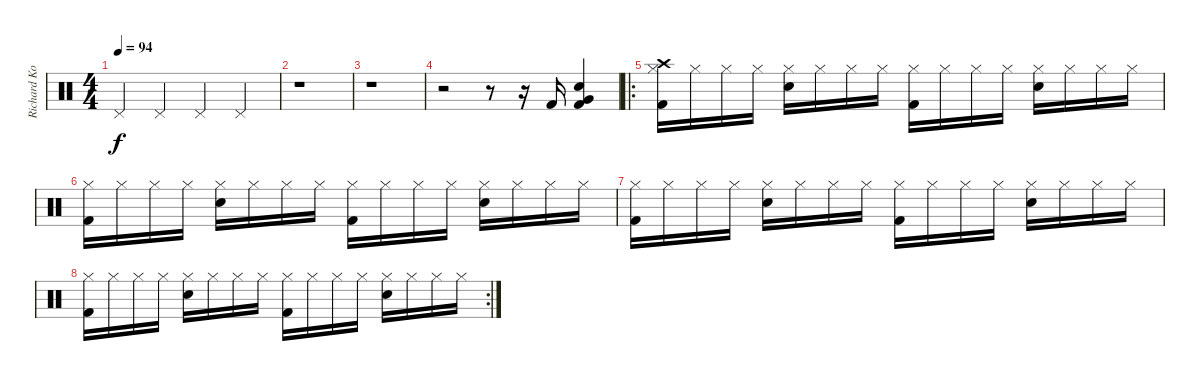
\track ("Richard Kolinka" "Richard Ko") {instrument percussion}
\staff {score}
\articulation defaults
\ts (4 4)
\tempo 94
\clef neutral
\ks c "Pedal Hi-Hat (hit)".4{dy f} "Pedal Hi-Hat (hit)".4 "Pedal Hi-Hat (hit)".4 "Pedal Hi-Hat (hit)".4
|
r.1 |
r.1 |
r.2 r.8 r.16 "Kick (hit) 2".16 ("Kick (hit) 2" "Electric Snare (hit)" "Very Low Tom (hit)").4 |
\ro
("Kick (hit) 2" "Hi-Hat (closed)" "Crash high (hit)").16 "Hi-Hat (closed)".16 "Hi-Hat (closed)".16 "Hi-Hat (closed)".16 ("Snare (hit) 2" "Hi-Hat (closed)").16 "Hi-Hat (closed)".16 "Hi-Hat (closed)".16 "Hi-Hat (closed)".16 ("Kick (hit) 2" "Hi-Hat (closed)").16 "Hi-Hat (closed)".16 "Hi-Hat (closed)".16 "Hi-Hat (closed)".16 ("Snare (hit) 2" "Hi-Hat (closed)").16 "Hi-Hat (closed)".16 "Hi-Hat (closed)".16 "Hi-Hat (closed)".16 |
("Kick (hit) 2" "Hi-Hat (closed)").16 "Hi-Hat (closed)".16 "Hi-Hat (closed)".16 "Hi-Hat (closed)".16 ("Snare (hit) 2" "Hi-Hat (closed)").16 "Hi-Hat (closed)".16 "Hi-Hat (closed)".16 "Hi-Hat (closed)".16 ("Kick (hit) 2" "Hi-Hat (closed)").16 "Hi-Hat (closed)".16 "Hi-Hat (closed)".16 "Hi-Hat (closed)".16 ("Snare (hit) 2" "Hi-Hat (closed)").16 "Hi-Hat (closed)".16 "Hi-Hat (closed)".16 "Hi-Hat (closed)".16 |
("Kick (hit) 2" "Hi-Hat (closed)").16 "Hi-Hat (closed)".16 "Hi-Hat (closed)".16 "Hi-Hat (closed)".16 ("Snare (hit) 2" "Hi-Hat (closed)").16 "Hi-Hat (closed)".16 "Hi-Hat (closed)".16 "Hi-Hat (closed)".16 ("Kick (hit) 2" "Hi-Hat (closed)").16 "Hi-Hat (closed)".16 "Hi-Hat (closed)".16 "Hi-Hat (closed)".16 ("Snare (hit) 2" "Hi-Hat (closed)").16 "Hi-Hat (closed)".16 "Hi-Hat (closed)".16 "Hi-Hat (closed)".16 |
\rc 2
("Kick (hit) 2" "Hi-Hat (closed)").16 "Hi-Hat (closed)".16 "Hi-Hat (closed)".16 "Hi-Hat (closed)".16 ("Snare (hit) 2" "Hi-Hat (closed)").16 "Hi-Hat (closed)".16 "Hi-Hat (closed)".16 "Hi-Hat (closed)".16 ("Kick (hit) 2" "Hi-Hat (closed)").16 "Hi-Hat (closed)".16 "Hi-Hat (closed)".16 "Hi-Hat (closed)".16 ("Snare (hit) 2" "Hi-Hat (closed)").16 "Hi-Hat (closed)".16 "Hi-Hat (closed)".16 "Hi-Hat (closed)".16
